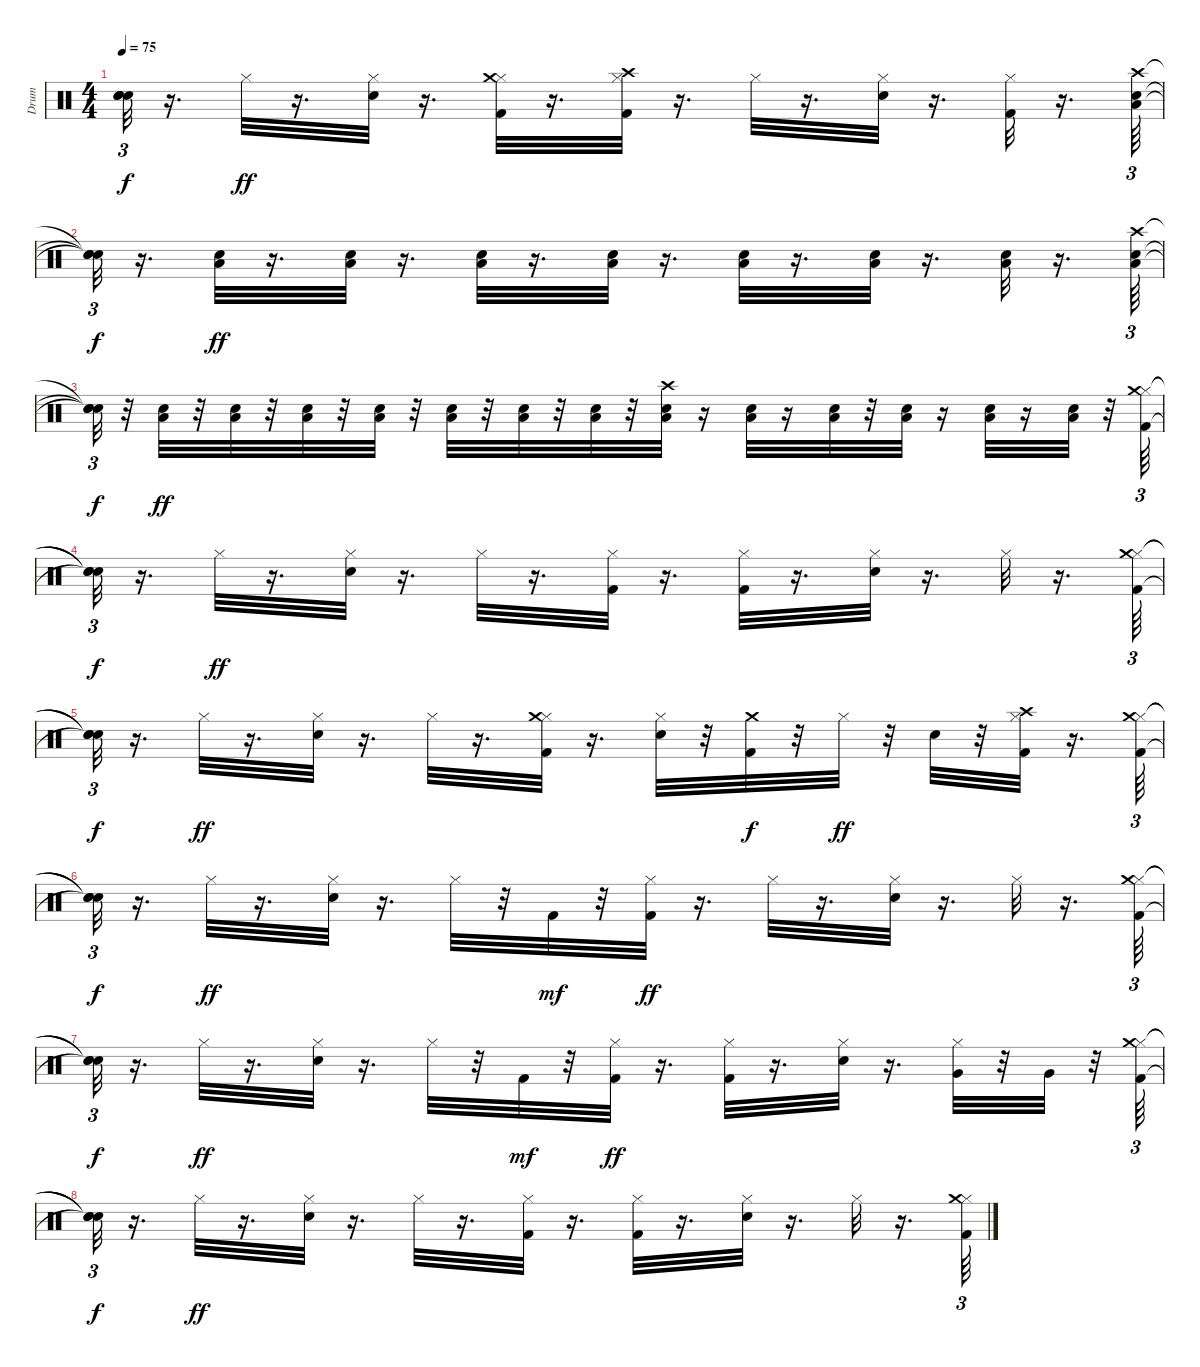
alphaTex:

\track ("Drum" "Drum") {instrument percussion}
\staff {score}
\articulation defaults
\ts (4 4)
\tempo 75
\clef neutral
\ks c
("Snare (hit)"{t} "Snare (hit)"{t} "Snare (hit)"{t}).32{tu (3 2) dy f} r.16{d} "Hi-Hat (closed)".32{dy ff} r.16{d} ("Hi-Hat (closed)" "Snare (hit) 2").32 r.16{d} ("Kick (hit) 2" "Hi-Hat (closed)" "Crash medium (hit)").32 r.16{d} ("Kick (hit) 2" "Hi-Hat (closed)" "Crash high (hit)").32 r.16{d} "Hi-Hat (closed)".32 r.16{d} ("Hi-Hat (closed)" "Snare (hit) 2").32 r.16{d} ("Kick (hit) 2" "Hi-Hat (closed)").32 r.16{d} ("Crash high (hit)" "Snare (hit) 2" "Low Tom (hit)").64{tu (3 2)} |
("Snare (hit)"{t} "Snare (hit)"{t} "Snare (hit)"{t}).32{tu (3 2) dy f} r.16{d} ("Snare (hit) 2" "Low Tom (hit)").32{dy ff} r.16{d} ("Snare (hit) 2" "Low Tom (hit)").32 r.16{d} ("Snare (hit) 2" "Low Tom (hit)").32 r.16{d} ("Snare (hit) 2" "Low Tom (hit)").32 r.16{d} ("Snare (hit) 2" "Low Tom (hit)").32 r.16{d} ("Snare (hit) 2" "Low Tom (hit)").32 r.16{d} ("Snare (hit) 2" "Low Tom (hit)").32 r.16{d} ("Crash high (hit)" "Snare (hit) 2" "Low Tom (hit)").64{tu (3 2)} |
("Snare (hit)"{t} "Snare (hit)"{t} "Snare (hit)"{t}).32{tu (3 2) dy f} r.32 ("Snare (hit) 2" "Low Tom (hit)").32{dy ff} r.32 ("Snare (hit) 2" "Low Tom (hit)").32 r.32 ("Snare (hit) 2" "Low Tom (hit)").32 r.32 ("Snare (hit) 2" "Low Tom (hit)").32 r.32 ("Snare (hit) 2" "Low Tom (hit)").32 r.32 ("Snare (hit) 2" "Low Tom (hit)").32 r.32 ("Snare (hit) 2" "Low Tom (hit)").32 r.32 ("Crash high (hit)" "Snare (hit) 2" "Low Tom (hit)").32 r.16 ("Snare (hit) 2" "Low Tom (hit)").32 r.16 ("Snare (hit) 2" "Low Tom (hit)").32 r.32 ("Snare (hit) 2" "Low Tom (hit)").32 r.16 ("Snare (hit) 2" "Low Tom (hit)").32 r.16 ("Snare (hit) 2" "Low Tom (hit)").32 r.32 ("Kick (hit) 2" "Hi-Hat (closed)" "Crash medium (hit)").64{tu (3 2)} |
("Snare (hit)"{t} "Snare (hit)"{t} "Snare (hit)"{t}).32{tu (3 2) dy f} r.16{d} "Hi-Hat (closed)".32{dy ff} r.16{d} ("Hi-Hat (closed)" "Snare (hit) 2").32 r.16{d} "Hi-Hat (closed)".32 r.16{d} ("Kick (hit) 2" "Hi-Hat (closed)").32 r.16{d} ("Kick (hit) 2" "Hi-Hat (closed)").32 r.16{d} ("Hi-Hat (closed)" "Snare (hit) 2").32 r.16{d} "Hi-Hat (closed)".32 r.16{d} ("Kick (hit) 2" "Hi-Hat (closed)" "Crash medium (hit)").64{tu (3 2)} |
("Snare (hit)"{t} "Snare (hit)"{t} "Snare (hit)"{t}).32{tu (3 2) dy f} r.16{d} "Hi-Hat (closed)".32{dy ff} r.16{d} ("Hi-Hat (closed)" "Snare (hit) 2").32 r.16{d} "Hi-Hat (closed)".32 r.16{d} ("Kick (hit) 2" "Hi-Hat (closed)" "Crash medium (hit)").32 r.16{d} ("Hi-Hat (closed)" "Snare (hit) 2").32 r.32 ("Kick (hit) 2" "Crash medium (hit)").32{dy f} r.32 "Hi-Hat (closed)".32{dy ff} r.32 "Snare (hit) 2".32 r.32 ("Kick (hit) 2" "Hi-Hat (closed)" "Crash high (hit)").32 r.16{d} ("Kick (hit) 2" "Hi-Hat (closed)" "Crash medium (hit)").64{tu (3 2)} |
("Snare (hit)"{t} "Snare (hit)"{t} "Snare (hit)"{t}).32{tu (3 2) dy f} r.16{d} "Hi-Hat (closed)".32{dy ff} r.16{d} ("Hi-Hat (closed)" "Snare (hit) 2").32 r.16{d} "Hi-Hat (closed)".32 r.32 "Kick (hit) 2".32{dy mf} r.32 ("Kick (hit) 2" "Hi-Hat (closed)").32{dy ff} r.16{d} "Hi-Hat (closed)".32 r.16{d} ("Hi-Hat (closed)" "Snare (hit) 2").32 r.16{d} "Hi-Hat (closed)".32 r.16{d} ("Kick (hit) 2" "Hi-Hat (closed)" "Crash medium (hit)").64{tu (3 2)} |
("Snare (hit)"{t} "Snare (hit)"{t} "Snare (hit)"{t}).32{tu (3 2) dy f} r.16{d} "Hi-Hat (closed)".32{dy ff} r.16{d} ("Hi-Hat (closed)" "Snare (hit) 2").32 r.16{d} "Hi-Hat (closed)".32 r.32 "Kick (hit) 2".32{dy mf} r.32 ("Kick (hit) 2" "Hi-Hat (closed)").32{dy ff} r.16{d} ("Kick (hit) 2" "Hi-Hat (closed)").32 r.16{d} ("Hi-Hat (closed)" "Snare (hit) 2").32 r.16{d} ("Hi-Hat (closed)" "Very Low Tom (hit)").32 r.32 "Very Low Tom (hit)".32 r.32 ("Kick (hit) 2" "Hi-Hat (closed)" "Crash medium (hit)").64{tu (3 2)} |
("Snare (hit)"{t} "Snare (hit)"{t} "Snare (hit)"{t}).32{tu (3 2) dy f} r.16{d} "Hi-Hat (closed)".32{dy ff} r.16{d} ("Hi-Hat (closed)" "Snare (hit) 2").32 r.16{d} "Hi-Hat (closed)".32 r.16{d} ("Kick (hit) 2" "Hi-Hat (closed)").32 r.16{d} ("Kick (hit) 2" "Hi-Hat (closed)").32 r.16{d} ("Hi-Hat (closed)" "Snare (hit) 2").32 r.16{d} "Hi-Hat (closed)".32 r.16{d} ("Kick (hit) 2" "Hi-Hat (closed)" "Crash medium (hit)").64{tu (3 2)}
